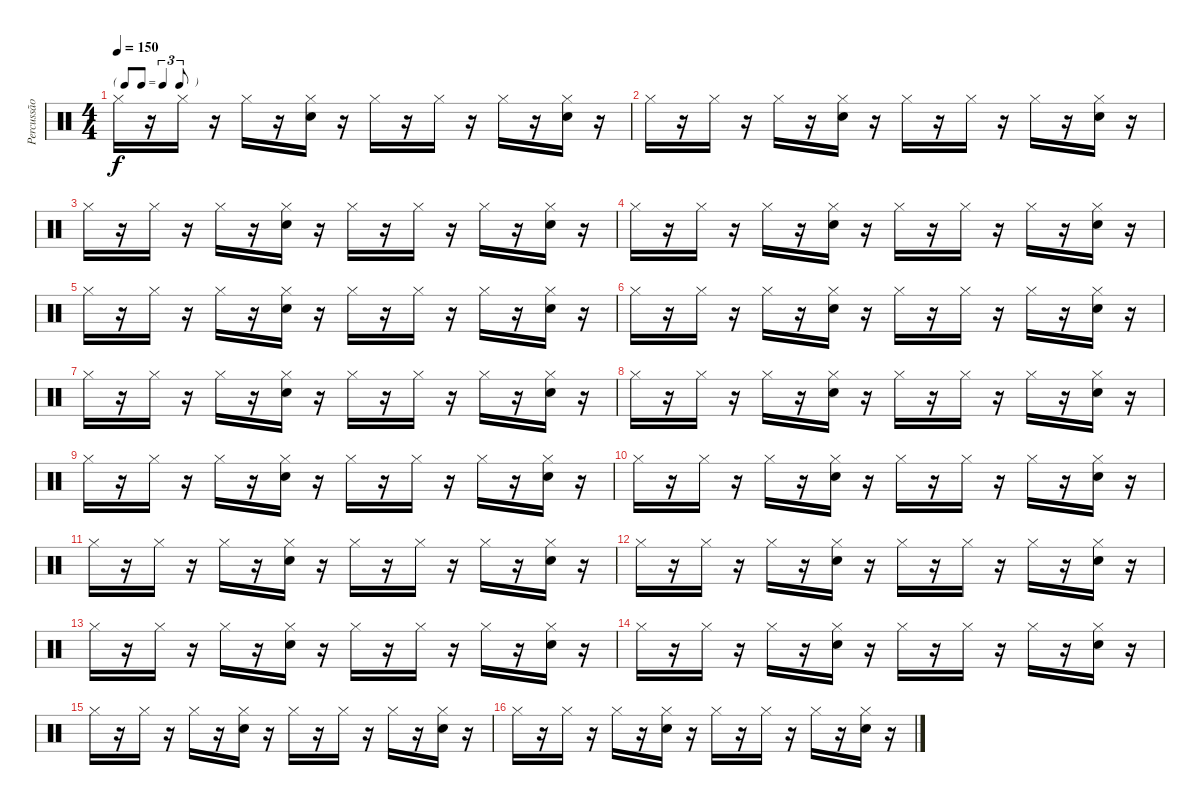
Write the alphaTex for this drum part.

\track ("Percussão" "Percussão") {instrument percussion}
\staff {score}
\articulation defaults
\ts (4 4)
\tf triplet8th
\tempo 150
\clef neutral
\ks c "Hi-Hat (closed)".16{dy f}
r.16 "Hi-Hat (closed)".16 r.16 "Hi-Hat (closed)".16 r.16 ("Hi-Hat (closed)" "Snare (hit) 2").16 r.16 "Hi-Hat (closed)".16 r.16 "Hi-Hat (closed)".16 r.16 "Hi-Hat (closed)".16 r.16 ("Hi-Hat (closed)" "Snare (hit) 2").16 r.16 |
"Hi-Hat (closed)".16 r.16 "Hi-Hat (closed)".16 r.16 "Hi-Hat (closed)".16 r.16 ("Hi-Hat (closed)" "Snare (hit) 2").16 r.16 "Hi-Hat (closed)".16 r.16 "Hi-Hat (closed)".16 r.16 "Hi-Hat (closed)".16 r.16 ("Hi-Hat (closed)" "Snare (hit) 2").16 r.16 |
"Hi-Hat (closed)".16 r.16 "Hi-Hat (closed)".16 r.16 "Hi-Hat (closed)".16 r.16 ("Hi-Hat (closed)" "Snare (hit) 2").16 r.16 "Hi-Hat (closed)".16 r.16 "Hi-Hat (closed)".16 r.16 "Hi-Hat (closed)".16 r.16 ("Hi-Hat (closed)" "Snare (hit) 2").16 r.16 |
"Hi-Hat (closed)".16 r.16 "Hi-Hat (closed)".16 r.16 "Hi-Hat (closed)".16 r.16 ("Hi-Hat (closed)" "Snare (hit) 2").16 r.16 "Hi-Hat (closed)".16 r.16 "Hi-Hat (closed)".16 r.16 "Hi-Hat (closed)".16 r.16 ("Hi-Hat (closed)" "Snare (hit) 2").16 r.16 |
"Hi-Hat (closed)".16 r.16 "Hi-Hat (closed)".16 r.16 "Hi-Hat (closed)".16 r.16 ("Hi-Hat (closed)" "Snare (hit) 2").16 r.16 "Hi-Hat (closed)".16 r.16 "Hi-Hat (closed)".16 r.16 "Hi-Hat (closed)".16 r.16 ("Hi-Hat (closed)" "Snare (hit) 2").16 r.16 |
"Hi-Hat (closed)".16 r.16 "Hi-Hat (closed)".16 r.16 "Hi-Hat (closed)".16 r.16 ("Hi-Hat (closed)" "Snare (hit) 2").16 r.16 "Hi-Hat (closed)".16 r.16 "Hi-Hat (closed)".16 r.16 "Hi-Hat (closed)".16 r.16 ("Hi-Hat (closed)" "Snare (hit) 2").16 r.16 |
"Hi-Hat (closed)".16 r.16 "Hi-Hat (closed)".16 r.16 "Hi-Hat (closed)".16 r.16 ("Hi-Hat (closed)" "Snare (hit) 2").16 r.16 "Hi-Hat (closed)".16 r.16 "Hi-Hat (closed)".16 r.16 "Hi-Hat (closed)".16 r.16 ("Hi-Hat (closed)" "Snare (hit) 2").16 r.16 |
"Hi-Hat (closed)".16 r.16 "Hi-Hat (closed)".16 r.16 "Hi-Hat (closed)".16 r.16 ("Hi-Hat (closed)" "Snare (hit) 2").16 r.16 "Hi-Hat (closed)".16 r.16 "Hi-Hat (closed)".16 r.16 "Hi-Hat (closed)".16 r.16 ("Hi-Hat (closed)" "Snare (hit) 2").16 r.16 |
"Hi-Hat (closed)".16 r.16 "Hi-Hat (closed)".16 r.16 "Hi-Hat (closed)".16 r.16 ("Hi-Hat (closed)" "Snare (hit) 2").16 r.16 "Hi-Hat (closed)".16 r.16 "Hi-Hat (closed)".16 r.16 "Hi-Hat (closed)".16 r.16 ("Hi-Hat (closed)" "Snare (hit) 2").16 r.16 |
"Hi-Hat (closed)".16 r.16 "Hi-Hat (closed)".16 r.16 "Hi-Hat (closed)".16 r.16 ("Hi-Hat (closed)" "Snare (hit) 2").16 r.16 "Hi-Hat (closed)".16 r.16 "Hi-Hat (closed)".16 r.16 "Hi-Hat (closed)".16 r.16 ("Hi-Hat (closed)" "Snare (hit) 2").16 r.16 |
"Hi-Hat (closed)".16 r.16 "Hi-Hat (closed)".16 r.16 "Hi-Hat (closed)".16 r.16 ("Hi-Hat (closed)" "Snare (hit) 2").16 r.16 "Hi-Hat (closed)".16 r.16 "Hi-Hat (closed)".16 r.16 "Hi-Hat (closed)".16 r.16 ("Hi-Hat (closed)" "Snare (hit) 2").16 r.16 |
"Hi-Hat (closed)".16 r.16 "Hi-Hat (closed)".16 r.16 "Hi-Hat (closed)".16 r.16 ("Hi-Hat (closed)" "Snare (hit) 2").16 r.16 "Hi-Hat (closed)".16 r.16 "Hi-Hat (closed)".16 r.16 "Hi-Hat (closed)".16 r.16 ("Hi-Hat (closed)" "Snare (hit) 2").16 r.16 |
"Hi-Hat (closed)".16 r.16 "Hi-Hat (closed)".16 r.16 "Hi-Hat (closed)".16 r.16 ("Hi-Hat (closed)" "Snare (hit) 2").16 r.16 "Hi-Hat (closed)".16 r.16 "Hi-Hat (closed)".16 r.16 "Hi-Hat (closed)".16 r.16 ("Hi-Hat (closed)" "Snare (hit) 2").16 r.16 |
"Hi-Hat (closed)".16 r.16 "Hi-Hat (closed)".16 r.16 "Hi-Hat (closed)".16 r.16 ("Hi-Hat (closed)" "Snare (hit) 2").16 r.16 "Hi-Hat (closed)".16 r.16 "Hi-Hat (closed)".16 r.16 "Hi-Hat (closed)".16 r.16 ("Hi-Hat (closed)" "Snare (hit) 2").16 r.16 |
"Hi-Hat (closed)".16 r.16 "Hi-Hat (closed)".16 r.16 "Hi-Hat (closed)".16 r.16 ("Hi-Hat (closed)" "Snare (hit) 2").16 r.16 "Hi-Hat (closed)".16 r.16 "Hi-Hat (closed)".16 r.16 "Hi-Hat (closed)".16 r.16 ("Hi-Hat (closed)" "Snare (hit) 2").16 r.16 |
"Hi-Hat (closed)".16 r.16 "Hi-Hat (closed)".16 r.16 "Hi-Hat (closed)".16 r.16 ("Hi-Hat (closed)" "Snare (hit) 2").16 r.16 "Hi-Hat (closed)".16 r.16 "Hi-Hat (closed)".16 r.16 "Hi-Hat (closed)".16 r.16 ("Hi-Hat (closed)" "Snare (hit) 2").16 r.16
